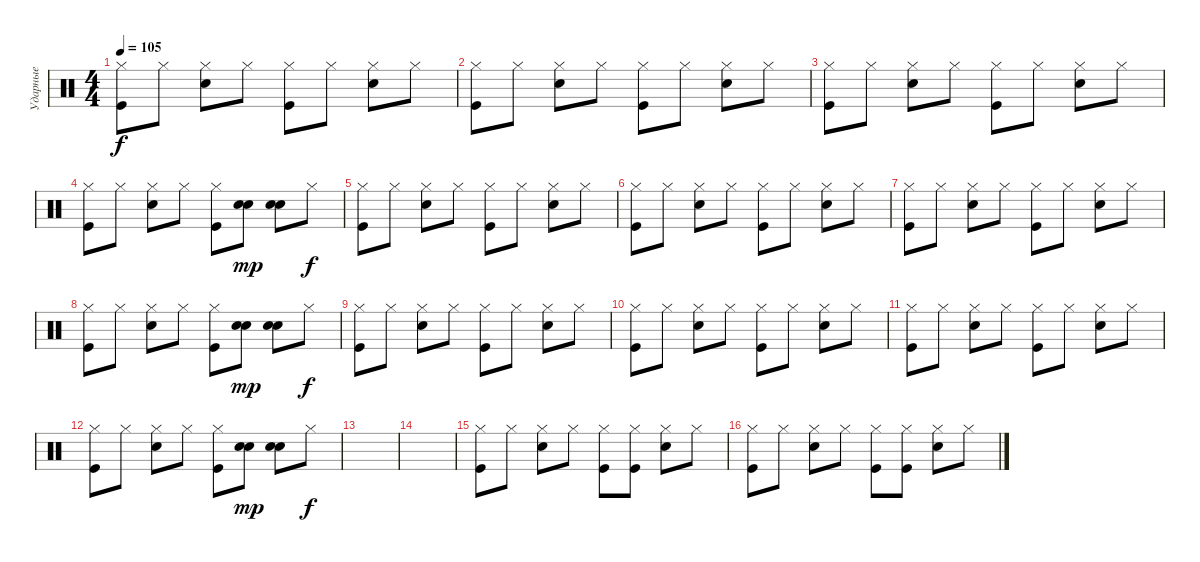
\track ("Ударные" "Ударные") {instrument percussion}
\staff {score}
\articulation defaults
\ts (4 4)
\tempo 105
\clef neutral
\ks c
("Hi-Hat (closed)" "Kick (hit)").8{dy f} "Hi-Hat (closed)".8 ("Hi-Hat (closed)" "Snare (hit) 2").8 "Hi-Hat (closed)".8 ("Hi-Hat (closed)" "Kick (hit)").8 "Hi-Hat (closed)".8 ("Hi-Hat (closed)" "Snare (hit) 2").8 "Hi-Hat (closed)".8 |
("Hi-Hat (closed)" "Kick (hit)").8 "Hi-Hat (closed)".8 ("Hi-Hat (closed)" "Snare (hit) 2").8 "Hi-Hat (closed)".8 ("Hi-Hat (closed)" "Kick (hit)").8 "Hi-Hat (closed)".8 ("Hi-Hat (closed)" "Snare (hit) 2").8 "Hi-Hat (closed)".8 |
("Hi-Hat (closed)" "Kick (hit)").8 "Hi-Hat (closed)".8 ("Hi-Hat (closed)" "Snare (hit) 2").8 "Hi-Hat (closed)".8 ("Hi-Hat (closed)" "Kick (hit)").8 "Hi-Hat (closed)".8 ("Hi-Hat (closed)" "Snare (hit) 2").8 "Hi-Hat (closed)".8 |
("Hi-Hat (closed)" "Kick (hit)").8 "Hi-Hat (closed)".8 ("Hi-Hat (closed)" "Snare (hit) 2").8 "Hi-Hat (closed)".8 ("Hi-Hat (closed)" "Kick (hit)").8 ("Hand Clap (hit)" "Snare (hit) 2").8{dy mp} ("Hand Clap (hit)" "Snare (hit) 2").8 "Hi-Hat (closed)".8{dy f} |
("Hi-Hat (closed)" "Kick (hit)").8 "Hi-Hat (closed)".8 ("Hi-Hat (closed)" "Snare (hit) 2").8 "Hi-Hat (closed)".8 ("Hi-Hat (closed)" "Kick (hit)").8 "Hi-Hat (closed)".8 ("Hi-Hat (closed)" "Snare (hit) 2").8 "Hi-Hat (closed)".8 |
("Hi-Hat (closed)" "Kick (hit)").8 "Hi-Hat (closed)".8 ("Hi-Hat (closed)" "Snare (hit) 2").8 "Hi-Hat (closed)".8 ("Hi-Hat (closed)" "Kick (hit)").8 "Hi-Hat (closed)".8 ("Hi-Hat (closed)" "Snare (hit) 2").8 "Hi-Hat (closed)".8 |
("Hi-Hat (closed)" "Kick (hit)").8 "Hi-Hat (closed)".8 ("Hi-Hat (closed)" "Snare (hit) 2").8 "Hi-Hat (closed)".8 ("Hi-Hat (closed)" "Kick (hit)").8 "Hi-Hat (closed)".8 ("Hi-Hat (closed)" "Snare (hit) 2").8 "Hi-Hat (closed)".8 |
("Hi-Hat (closed)" "Kick (hit)").8 "Hi-Hat (closed)".8 ("Hi-Hat (closed)" "Snare (hit) 2").8 "Hi-Hat (closed)".8 ("Hi-Hat (closed)" "Kick (hit)").8 ("Hand Clap (hit)" "Snare (hit) 2").8{dy mp} ("Hand Clap (hit)" "Snare (hit) 2").8 "Hi-Hat (closed)".8{dy f} |
("Hi-Hat (closed)" "Kick (hit)").8 "Hi-Hat (closed)".8 ("Hi-Hat (closed)" "Snare (hit) 2").8 "Hi-Hat (closed)".8 ("Hi-Hat (closed)" "Kick (hit)").8 "Hi-Hat (closed)".8 ("Hi-Hat (closed)" "Snare (hit) 2").8 "Hi-Hat (closed)".8 |
("Hi-Hat (closed)" "Kick (hit)").8 "Hi-Hat (closed)".8 ("Hi-Hat (closed)" "Snare (hit) 2").8 "Hi-Hat (closed)".8 ("Hi-Hat (closed)" "Kick (hit)").8 "Hi-Hat (closed)".8 ("Hi-Hat (closed)" "Snare (hit) 2").8 "Hi-Hat (closed)".8 |
("Hi-Hat (closed)" "Kick (hit)").8 "Hi-Hat (closed)".8 ("Hi-Hat (closed)" "Snare (hit) 2").8 "Hi-Hat (closed)".8 ("Hi-Hat (closed)" "Kick (hit)").8 "Hi-Hat (closed)".8 ("Hi-Hat (closed)" "Snare (hit) 2").8 "Hi-Hat (closed)".8 |
("Hi-Hat (closed)" "Kick (hit)").8 "Hi-Hat (closed)".8 ("Hi-Hat (closed)" "Snare (hit) 2").8 "Hi-Hat (closed)".8 ("Hi-Hat (closed)" "Kick (hit)").8 ("Hand Clap (hit)" "Snare (hit) 2").8{dy mp} ("Hand Clap (hit)" "Snare (hit) 2").8 "Hi-Hat (closed)".8{dy f} |
|
|
("Hi-Hat (closed)" "Kick (hit)").8 "Hi-Hat (closed)".8 ("Hi-Hat (closed)" "Snare (hit) 2").8 "Hi-Hat (closed)".8 ("Hi-Hat (closed)" "Kick (hit)").8 ("Hi-Hat (closed)" "Kick (hit)").8 ("Hi-Hat (closed)" "Snare (hit) 2").8 "Hi-Hat (closed)".8 |
("Hi-Hat (closed)" "Kick (hit)").8 "Hi-Hat (closed)".8 ("Hi-Hat (closed)" "Snare (hit) 2").8 "Hi-Hat (closed)".8 ("Hi-Hat (closed)" "Kick (hit)").8 ("Hi-Hat (closed)" "Kick (hit)").8 ("Hi-Hat (closed)" "Snare (hit) 2").8 "Hi-Hat (closed)".8
